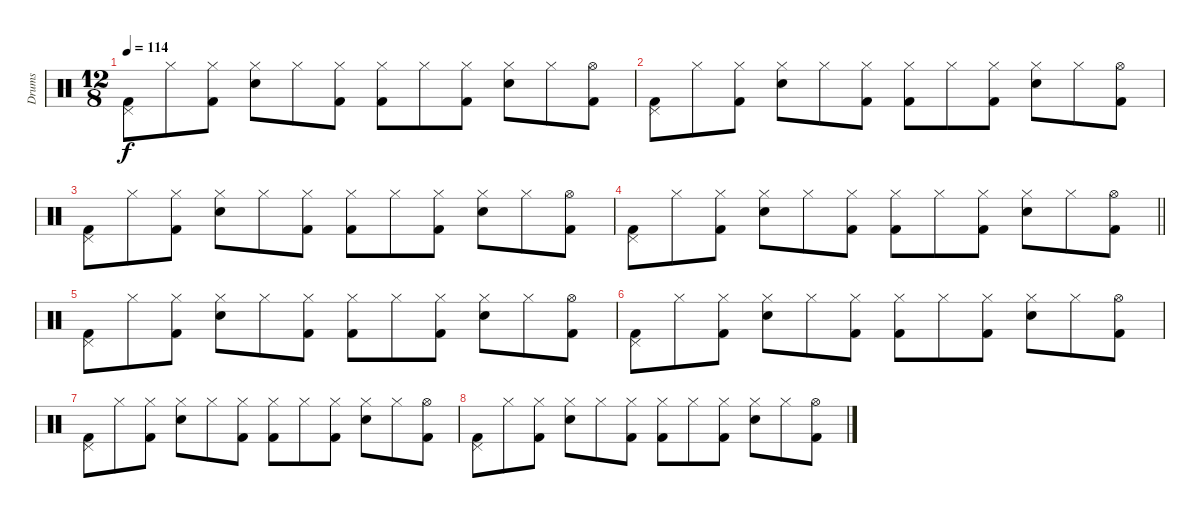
\track ("Drums" "Drums") {instrument percussion}
\staff {score}
\articulation defaults
\ts (12 8)
\tempo 114
\clef neutral
\ks c
("Pedal Hi-Hat (hit)" "Kick (hit) 2").8{dy f} "Hi-Hat (closed)".8 ("Hi-Hat (closed)" "Kick (hit) 2").8 ("Hi-Hat (closed)" "Snare (hit) 2").8 "Hi-Hat (closed)".8 ("Hi-Hat (closed)" "Kick (hit) 2").8 ("Hi-Hat (closed)" "Kick (hit) 2").8 "Hi-Hat (closed)".8 ("Hi-Hat (closed)" "Kick (hit) 2").8 ("Hi-Hat (closed)" "Snare (hit) 2").8 "Hi-Hat (closed)".8 ("Hi-Hat (open)" "Kick (hit) 2").8 |
("Pedal Hi-Hat (hit)" "Kick (hit) 2").8 "Hi-Hat (closed)".8 ("Hi-Hat (closed)" "Kick (hit) 2").8 ("Hi-Hat (closed)" "Snare (hit) 2").8 "Hi-Hat (closed)".8 ("Hi-Hat (closed)" "Kick (hit) 2").8 ("Hi-Hat (closed)" "Kick (hit) 2").8 "Hi-Hat (closed)".8 ("Hi-Hat (closed)" "Kick (hit) 2").8 ("Hi-Hat (closed)" "Snare (hit) 2").8 "Hi-Hat (closed)".8 ("Hi-Hat (open)" "Kick (hit) 2").8 |
("Pedal Hi-Hat (hit)" "Kick (hit) 2").8 "Hi-Hat (closed)".8 ("Hi-Hat (closed)" "Kick (hit) 2").8 ("Hi-Hat (closed)" "Snare (hit) 2").8 "Hi-Hat (closed)".8 ("Hi-Hat (closed)" "Kick (hit) 2").8 ("Hi-Hat (closed)" "Kick (hit) 2").8 "Hi-Hat (closed)".8 ("Hi-Hat (closed)" "Kick (hit) 2").8 ("Hi-Hat (closed)" "Snare (hit) 2").8 "Hi-Hat (closed)".8 ("Hi-Hat (open)" "Kick (hit) 2").8 |
\barLineRight lightlight
("Pedal Hi-Hat (hit)" "Kick (hit) 2").8 "Hi-Hat (closed)".8 ("Hi-Hat (closed)" "Kick (hit) 2").8 ("Hi-Hat (closed)" "Snare (hit) 2").8 "Hi-Hat (closed)".8 ("Hi-Hat (closed)" "Kick (hit) 2").8 ("Hi-Hat (closed)" "Kick (hit) 2").8 "Hi-Hat (closed)".8 ("Hi-Hat (closed)" "Kick (hit) 2").8 ("Hi-Hat (closed)" "Snare (hit) 2").8 "Hi-Hat (closed)".8 ("Hi-Hat (open)" "Kick (hit) 2").8 |
("Pedal Hi-Hat (hit)" "Kick (hit) 2").8 "Hi-Hat (closed)".8 ("Hi-Hat (closed)" "Kick (hit) 2").8 ("Hi-Hat (closed)" "Snare (hit) 2").8 "Hi-Hat (closed)".8 ("Hi-Hat (closed)" "Kick (hit) 2").8 ("Hi-Hat (closed)" "Kick (hit) 2").8 "Hi-Hat (closed)".8 ("Hi-Hat (closed)" "Kick (hit) 2").8 ("Hi-Hat (closed)" "Snare (hit) 2").8 "Hi-Hat (closed)".8 ("Hi-Hat (open)" "Kick (hit) 2").8 |
("Pedal Hi-Hat (hit)" "Kick (hit) 2").8 "Hi-Hat (closed)".8 ("Hi-Hat (closed)" "Kick (hit) 2").8 ("Hi-Hat (closed)" "Snare (hit) 2").8 "Hi-Hat (closed)".8 ("Hi-Hat (closed)" "Kick (hit) 2").8 ("Hi-Hat (closed)" "Kick (hit) 2").8 "Hi-Hat (closed)".8 ("Hi-Hat (closed)" "Kick (hit) 2").8 ("Hi-Hat (closed)" "Snare (hit) 2").8 "Hi-Hat (closed)".8 ("Hi-Hat (open)" "Kick (hit) 2").8 |
("Pedal Hi-Hat (hit)" "Kick (hit) 2").8 "Hi-Hat (closed)".8 ("Hi-Hat (closed)" "Kick (hit) 2").8 ("Hi-Hat (closed)" "Snare (hit) 2").8 "Hi-Hat (closed)".8 ("Hi-Hat (closed)" "Kick (hit) 2").8 ("Hi-Hat (closed)" "Kick (hit) 2").8 "Hi-Hat (closed)".8 ("Hi-Hat (closed)" "Kick (hit) 2").8 ("Hi-Hat (closed)" "Snare (hit) 2").8 "Hi-Hat (closed)".8 ("Hi-Hat (open)" "Kick (hit) 2").8 |
("Pedal Hi-Hat (hit)" "Kick (hit) 2").8 "Hi-Hat (closed)".8 ("Hi-Hat (closed)" "Kick (hit) 2").8 ("Hi-Hat (closed)" "Snare (hit) 2").8 "Hi-Hat (closed)".8 ("Hi-Hat (closed)" "Kick (hit) 2").8 ("Hi-Hat (closed)" "Kick (hit) 2").8 "Hi-Hat (closed)".8 ("Hi-Hat (closed)" "Kick (hit) 2").8 ("Hi-Hat (closed)" "Snare (hit) 2").8 "Hi-Hat (closed)".8 ("Hi-Hat (open)" "Kick (hit) 2").8
